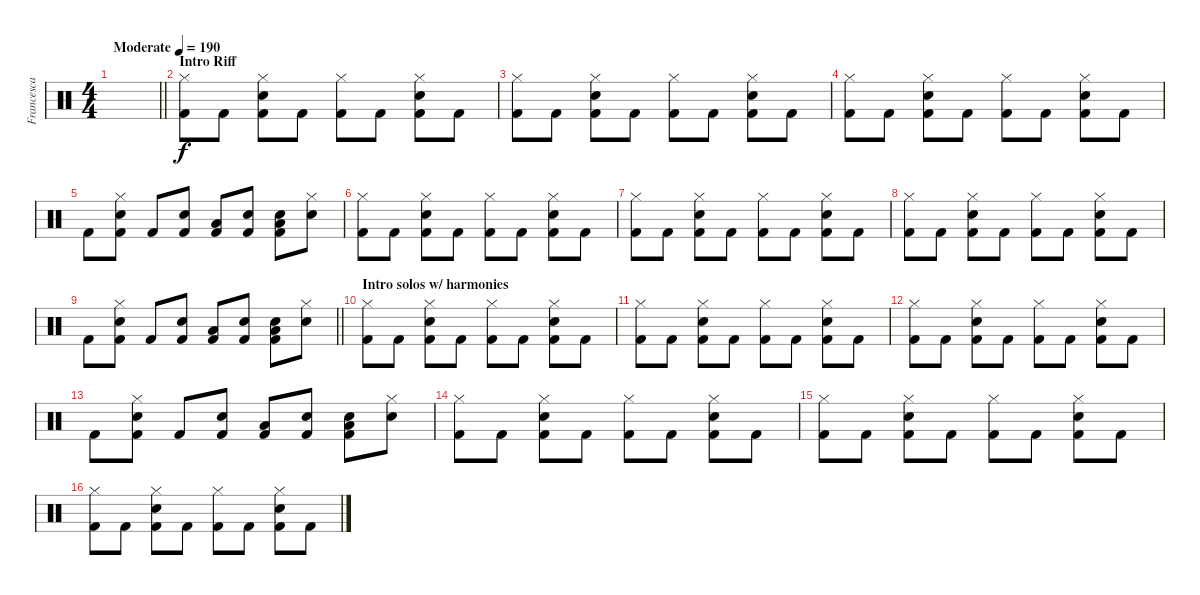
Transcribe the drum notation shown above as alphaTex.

\track ("Francesca Tresca" "Francesca ") {instrument percussion}
\staff {score}
\articulation defaults
\ts (4 4)
\tempo (190 "Moderate")
\clef neutral
\barLineRight lightlight
\ks c
|
\section ("" "Intro Riff")
("Hi-Hat (closed)" "Kick (hit) 2").8 "Kick (hit) 2".8 ("Hi-Hat (closed)" "Snare (hit) 2" "Kick (hit) 2").8 "Kick (hit) 2".8 ("Hi-Hat (closed)" "Kick (hit) 2").8 "Kick (hit) 2".8 ("Hi-Hat (closed)" "Snare (hit) 2" "Kick (hit) 2").8 "Kick (hit) 2".8 |
("Hi-Hat (closed)" "Kick (hit) 2").8 "Kick (hit) 2".8 ("Hi-Hat (closed)" "Snare (hit) 2" "Kick (hit) 2").8 "Kick (hit) 2".8 ("Hi-Hat (closed)" "Kick (hit) 2").8 "Kick (hit) 2".8 ("Hi-Hat (closed)" "Snare (hit) 2" "Kick (hit) 2").8 "Kick (hit) 2".8 |
("Hi-Hat (closed)" "Kick (hit) 2").8 "Kick (hit) 2".8 ("Hi-Hat (closed)" "Snare (hit) 2" "Kick (hit) 2").8 "Kick (hit) 2".8 ("Hi-Hat (closed)" "Kick (hit) 2").8 "Kick (hit) 2".8 ("Hi-Hat (closed)" "Snare (hit) 2" "Kick (hit) 2").8 "Kick (hit) 2".8 |
"Kick (hit) 2".8 ("Hi-Hat (closed)" "Snare (hit) 2" "Kick (hit) 2").8 "Kick (hit) 2".8 ("Snare (hit) 2" "Kick (hit) 2").8 ("Low Tom (hit)" "Kick (hit) 2").8 ("Snare (hit) 2" "Kick (hit) 2").8 ("Low Tom (hit)" "Snare (hit) 2" "Kick (hit) 2").8 ("Hi-Hat (closed)" "Snare (hit) 2").8 |
("Hi-Hat (closed)" "Kick (hit) 2").8 "Kick (hit) 2".8 ("Hi-Hat (closed)" "Snare (hit) 2" "Kick (hit) 2").8 "Kick (hit) 2".8 ("Hi-Hat (closed)" "Kick (hit) 2").8 "Kick (hit) 2".8 ("Hi-Hat (closed)" "Snare (hit) 2" "Kick (hit) 2").8 "Kick (hit) 2".8 |
("Hi-Hat (closed)" "Kick (hit) 2").8 "Kick (hit) 2".8 ("Hi-Hat (closed)" "Snare (hit) 2" "Kick (hit) 2").8 "Kick (hit) 2".8 ("Hi-Hat (closed)" "Kick (hit) 2").8 "Kick (hit) 2".8 ("Hi-Hat (closed)" "Snare (hit) 2" "Kick (hit) 2").8 "Kick (hit) 2".8 |
("Hi-Hat (closed)" "Kick (hit) 2").8 "Kick (hit) 2".8 ("Hi-Hat (closed)" "Snare (hit) 2" "Kick (hit) 2").8 "Kick (hit) 2".8 ("Hi-Hat (closed)" "Kick (hit) 2").8 "Kick (hit) 2".8 ("Hi-Hat (closed)" "Snare (hit) 2" "Kick (hit) 2").8 "Kick (hit) 2".8 |
\barLineRight lightlight "Kick (hit) 2".8
("Hi-Hat (closed)" "Snare (hit) 2" "Kick (hit) 2").8 "Kick (hit) 2".8 ("Snare (hit) 2" "Kick (hit) 2").8 ("Low Tom (hit)" "Kick (hit) 2").8 ("Snare (hit) 2" "Kick (hit) 2").8 ("Low Tom (hit)" "Snare (hit) 2" "Kick (hit) 2").8 ("Hi-Hat (closed)" "Snare (hit) 2").8 |
\section ("" "Intro solos w/ harmonies")
("Hi-Hat (closed)" "Kick (hit) 2").8 "Kick (hit) 2".8 ("Hi-Hat (closed)" "Snare (hit) 2" "Kick (hit) 2").8 "Kick (hit) 2".8 ("Hi-Hat (closed)" "Kick (hit) 2").8 "Kick (hit) 2".8 ("Hi-Hat (closed)" "Snare (hit) 2" "Kick (hit) 2").8 "Kick (hit) 2".8 |
("Hi-Hat (closed)" "Kick (hit) 2").8 "Kick (hit) 2".8 ("Hi-Hat (closed)" "Snare (hit) 2" "Kick (hit) 2").8 "Kick (hit) 2".8 ("Hi-Hat (closed)" "Kick (hit) 2").8 "Kick (hit) 2".8 ("Hi-Hat (closed)" "Snare (hit) 2" "Kick (hit) 2").8 "Kick (hit) 2".8 |
("Hi-Hat (closed)" "Kick (hit) 2").8 "Kick (hit) 2".8 ("Hi-Hat (closed)" "Snare (hit) 2" "Kick (hit) 2").8 "Kick (hit) 2".8 ("Hi-Hat (closed)" "Kick (hit) 2").8 "Kick (hit) 2".8 ("Hi-Hat (closed)" "Snare (hit) 2" "Kick (hit) 2").8 "Kick (hit) 2".8 |
"Kick (hit) 2".8 ("Hi-Hat (closed)" "Snare (hit) 2" "Kick (hit) 2").8 "Kick (hit) 2".8 ("Snare (hit) 2" "Kick (hit) 2").8 ("Low Tom (hit)" "Kick (hit) 2").8 ("Snare (hit) 2" "Kick (hit) 2").8 ("Low Tom (hit)" "Snare (hit) 2" "Kick (hit) 2").8 ("Hi-Hat (closed)" "Snare (hit) 2").8 |
("Hi-Hat (closed)" "Kick (hit) 2").8 "Kick (hit) 2".8 ("Hi-Hat (closed)" "Snare (hit) 2" "Kick (hit) 2").8 "Kick (hit) 2".8 ("Hi-Hat (closed)" "Kick (hit) 2").8 "Kick (hit) 2".8 ("Hi-Hat (closed)" "Snare (hit) 2" "Kick (hit) 2").8 "Kick (hit) 2".8 |
("Hi-Hat (closed)" "Kick (hit) 2").8 "Kick (hit) 2".8 ("Hi-Hat (closed)" "Snare (hit) 2" "Kick (hit) 2").8 "Kick (hit) 2".8 ("Hi-Hat (closed)" "Kick (hit) 2").8 "Kick (hit) 2".8 ("Hi-Hat (closed)" "Snare (hit) 2" "Kick (hit) 2").8 "Kick (hit) 2".8 |
("Hi-Hat (closed)" "Kick (hit) 2").8 "Kick (hit) 2".8 ("Hi-Hat (closed)" "Snare (hit) 2" "Kick (hit) 2").8 "Kick (hit) 2".8 ("Hi-Hat (closed)" "Kick (hit) 2").8 "Kick (hit) 2".8 ("Hi-Hat (closed)" "Snare (hit) 2" "Kick (hit) 2").8 "Kick (hit) 2".8
